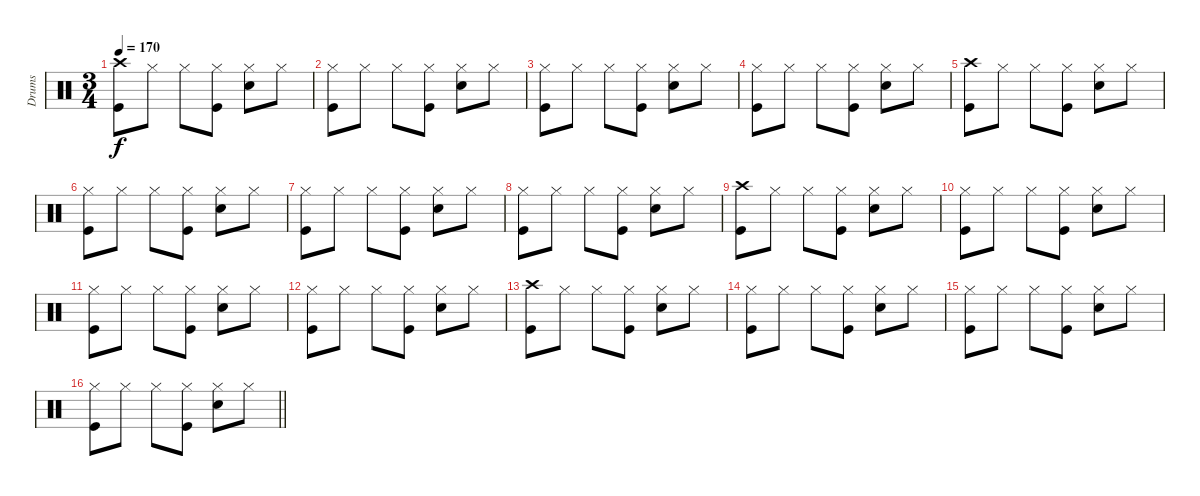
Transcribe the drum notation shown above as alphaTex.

\track ("Drums" "Drums") {instrument percussion}
\staff {score}
\articulation defaults
\ts (3 4)
\tempo 170
\clef neutral
\ks c
("Crash high (hit)" "Kick (hit)").8{dy f} "Hi-Hat (closed)".8 "Hi-Hat (closed)".8 ("Hi-Hat (closed)" "Kick (hit)").8 ("Hi-Hat (closed)" "Snare (hit) 2").8 "Hi-Hat (closed)".8 |
("Hi-Hat (closed)" "Kick (hit)").8 "Hi-Hat (closed)".8 "Hi-Hat (closed)".8 ("Hi-Hat (closed)" "Kick (hit)").8 ("Hi-Hat (closed)" "Snare (hit) 2").8 "Hi-Hat (closed)".8 |
("Hi-Hat (closed)" "Kick (hit)").8 "Hi-Hat (closed)".8 "Hi-Hat (closed)".8 ("Hi-Hat (closed)" "Kick (hit)").8 ("Hi-Hat (closed)" "Snare (hit) 2").8 "Hi-Hat (closed)".8 |
("Hi-Hat (closed)" "Kick (hit)").8 "Hi-Hat (closed)".8 "Hi-Hat (closed)".8 ("Hi-Hat (closed)" "Kick (hit)").8 ("Hi-Hat (closed)" "Snare (hit) 2").8 "Hi-Hat (closed)".8 |
("Crash high (hit)" "Kick (hit)").8 "Hi-Hat (closed)".8 "Hi-Hat (closed)".8 ("Hi-Hat (closed)" "Kick (hit)").8 ("Hi-Hat (closed)" "Snare (hit) 2").8 "Hi-Hat (closed)".8 |
("Hi-Hat (closed)" "Kick (hit)").8 "Hi-Hat (closed)".8 "Hi-Hat (closed)".8 ("Hi-Hat (closed)" "Kick (hit)").8 ("Hi-Hat (closed)" "Snare (hit) 2").8 "Hi-Hat (closed)".8 |
("Hi-Hat (closed)" "Kick (hit)").8 "Hi-Hat (closed)".8 "Hi-Hat (closed)".8 ("Hi-Hat (closed)" "Kick (hit)").8 ("Hi-Hat (closed)" "Snare (hit) 2").8 "Hi-Hat (closed)".8 |
("Hi-Hat (closed)" "Kick (hit)").8 "Hi-Hat (closed)".8 "Hi-Hat (closed)".8 ("Hi-Hat (closed)" "Kick (hit)").8 ("Hi-Hat (closed)" "Snare (hit) 2").8 "Hi-Hat (closed)".8 |
("Crash high (hit)" "Kick (hit)").8 "Hi-Hat (closed)".8 "Hi-Hat (closed)".8 ("Hi-Hat (closed)" "Kick (hit)").8 ("Hi-Hat (closed)" "Snare (hit) 2").8 "Hi-Hat (closed)".8 |
("Hi-Hat (closed)" "Kick (hit)").8 "Hi-Hat (closed)".8 "Hi-Hat (closed)".8 ("Hi-Hat (closed)" "Kick (hit)").8 ("Hi-Hat (closed)" "Snare (hit) 2").8 "Hi-Hat (closed)".8 |
("Hi-Hat (closed)" "Kick (hit)").8 "Hi-Hat (closed)".8 "Hi-Hat (closed)".8 ("Hi-Hat (closed)" "Kick (hit)").8 ("Hi-Hat (closed)" "Snare (hit) 2").8 "Hi-Hat (closed)".8 |
("Hi-Hat (closed)" "Kick (hit)").8 "Hi-Hat (closed)".8 "Hi-Hat (closed)".8 ("Hi-Hat (closed)" "Kick (hit)").8 ("Hi-Hat (closed)" "Snare (hit) 2").8 "Hi-Hat (closed)".8 |
("Crash high (hit)" "Kick (hit)").8 "Hi-Hat (closed)".8 "Hi-Hat (closed)".8 ("Hi-Hat (closed)" "Kick (hit)").8 ("Hi-Hat (closed)" "Snare (hit) 2").8 "Hi-Hat (closed)".8 |
("Hi-Hat (closed)" "Kick (hit)").8 "Hi-Hat (closed)".8 "Hi-Hat (closed)".8 ("Hi-Hat (closed)" "Kick (hit)").8 ("Hi-Hat (closed)" "Snare (hit) 2").8 "Hi-Hat (closed)".8 |
("Hi-Hat (closed)" "Kick (hit)").8 "Hi-Hat (closed)".8 "Hi-Hat (closed)".8 ("Hi-Hat (closed)" "Kick (hit)").8 ("Hi-Hat (closed)" "Snare (hit) 2").8 "Hi-Hat (closed)".8 |
\barLineRight lightlight
("Hi-Hat (closed)" "Kick (hit)").8 "Hi-Hat (closed)".8 "Hi-Hat (closed)".8 ("Hi-Hat (closed)" "Kick (hit)").8 ("Hi-Hat (closed)" "Snare (hit) 2").8 "Hi-Hat (closed)".8
